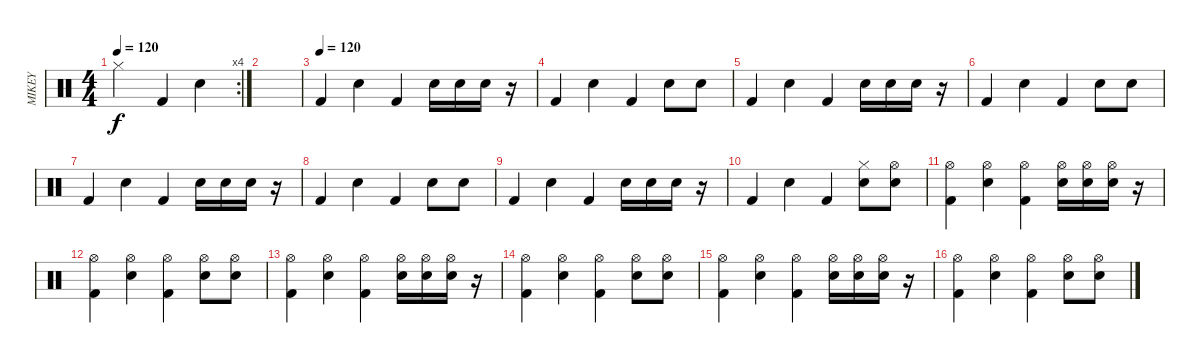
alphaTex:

\track ("MIKEY" "MIKEY") {instrument percussion}
\staff {score}
\articulation defaults
\rc 4
\ts (4 4)
\tempo 120
\clef neutral
\ks c "Hi-Hat (closed)".2{dy f} "Kick (hit) 2".4 "Electric Snare (hit)".4
|
|
\tempo (120)
"Kick (hit) 2".4 "Electric Snare (hit)".4 "Kick (hit) 2".4 "Electric Snare (hit)".16 "Electric Snare (hit)".16 "Electric Snare (hit)".16 r.16 |
"Kick (hit) 2".4 "Electric Snare (hit)".4 "Kick (hit) 2".4 "Electric Snare (hit)".8 "Electric Snare (hit)".8 |
"Kick (hit) 2".4 "Electric Snare (hit)".4 "Kick (hit) 2".4 "Electric Snare (hit)".16 "Electric Snare (hit)".16 "Electric Snare (hit)".16 r.16 |
"Kick (hit) 2".4 "Electric Snare (hit)".4 "Kick (hit) 2".4 "Electric Snare (hit)".8 "Electric Snare (hit)".8 |
"Kick (hit) 2".4 "Electric Snare (hit)".4 "Kick (hit) 2".4 "Electric Snare (hit)".16 "Electric Snare (hit)".16 "Electric Snare (hit)".16 r.16 |
"Kick (hit) 2".4 "Electric Snare (hit)".4 "Kick (hit) 2".4 "Electric Snare (hit)".8 "Electric Snare (hit)".8 |
"Kick (hit) 2".4 "Electric Snare (hit)".4 "Kick (hit) 2".4 "Electric Snare (hit)".16 "Electric Snare (hit)".16 "Electric Snare (hit)".16 r.16 |
"Kick (hit) 2".4 "Electric Snare (hit)".4 "Kick (hit) 2".4 ("Hi-Hat (closed)" "Electric Snare (hit)").8 ("Hi-Hat (open)" "Electric Snare (hit)").8 |
("Hi-Hat (open)" "Kick (hit) 2").4 ("Hi-Hat (open)" "Electric Snare (hit)").4 ("Hi-Hat (open)" "Kick (hit) 2").4 ("Hi-Hat (open)" "Electric Snare (hit)").16 ("Hi-Hat (open)" "Electric Snare (hit)").16 ("Hi-Hat (open)" "Electric Snare (hit)").16 r.16 |
("Hi-Hat (open)" "Kick (hit) 2").4 ("Hi-Hat (open)" "Electric Snare (hit)").4 ("Hi-Hat (open)" "Kick (hit) 2").4 ("Hi-Hat (open)" "Electric Snare (hit)").8 ("Hi-Hat (open)" "Electric Snare (hit)").8 |
("Hi-Hat (open)" "Kick (hit) 2").4 ("Hi-Hat (open)" "Electric Snare (hit)").4 ("Hi-Hat (open)" "Kick (hit) 2").4 ("Hi-Hat (open)" "Electric Snare (hit)").16 ("Hi-Hat (open)" "Electric Snare (hit)").16 ("Hi-Hat (open)" "Electric Snare (hit)").16 r.16 |
("Hi-Hat (open)" "Kick (hit) 2").4 ("Hi-Hat (open)" "Electric Snare (hit)").4 ("Hi-Hat (open)" "Kick (hit) 2").4 ("Hi-Hat (open)" "Electric Snare (hit)").8 ("Hi-Hat (open)" "Electric Snare (hit)").8 |
("Hi-Hat (open)" "Kick (hit) 2").4 ("Hi-Hat (open)" "Electric Snare (hit)").4 ("Hi-Hat (open)" "Kick (hit) 2").4 ("Hi-Hat (open)" "Electric Snare (hit)").16 ("Hi-Hat (open)" "Electric Snare (hit)").16 ("Hi-Hat (open)" "Electric Snare (hit)").16 r.16 |
("Hi-Hat (open)" "Kick (hit) 2").4 ("Hi-Hat (open)" "Electric Snare (hit)").4 ("Hi-Hat (open)" "Kick (hit) 2").4 ("Hi-Hat (open)" "Electric Snare (hit)").8 ("Hi-Hat (open)" "Electric Snare (hit)").8
